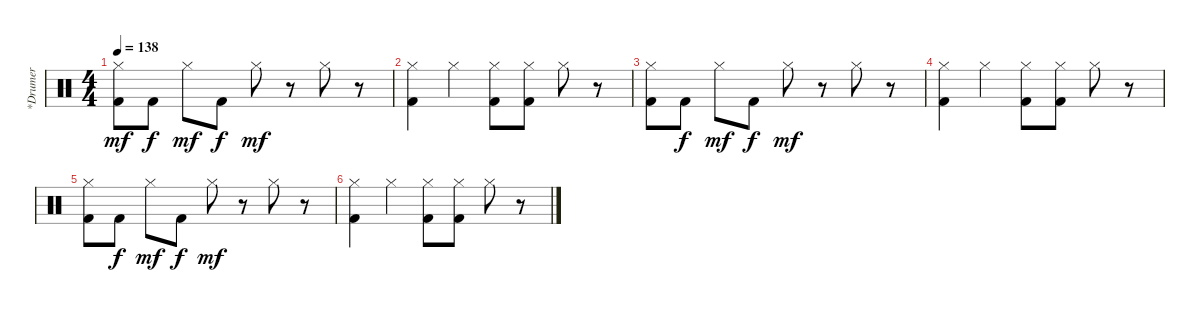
\track ("*Drumer" "*Drumer") {instrument percussion}
\staff {score}
\articulation defaults
\ts (4 4)
\tempo 138
\clef neutral
\ks c
("Hi-Hat (closed)" "Kick (hit) 2").8{dy mf} "Kick (hit) 2".8{dy f} "Hi-Hat (closed)".8{dy mf} "Kick (hit) 2".8{dy f} "Hi-Hat (closed)".8{dy mf} r.8 "Hi-Hat (closed)".8 r.8 |
("Hi-Hat (closed)" "Kick (hit) 2").4 "Hi-Hat (closed)".4 ("Hi-Hat (closed)" "Kick (hit) 2").8 ("Hi-Hat (closed)" "Kick (hit) 2").8 "Hi-Hat (closed)".8 r.8 |
("Hi-Hat (closed)" "Kick (hit) 2").8 "Kick (hit) 2".8{dy f} "Hi-Hat (closed)".8{dy mf} "Kick (hit) 2".8{dy f} "Hi-Hat (closed)".8{dy mf} r.8 "Hi-Hat (closed)".8 r.8 |
("Hi-Hat (closed)" "Kick (hit) 2").4 "Hi-Hat (closed)".4 ("Hi-Hat (closed)" "Kick (hit) 2").8 ("Hi-Hat (closed)" "Kick (hit) 2").8 "Hi-Hat (closed)".8 r.8 |
("Hi-Hat (closed)" "Kick (hit) 2").8 "Kick (hit) 2".8{dy f} "Hi-Hat (closed)".8{dy mf} "Kick (hit) 2".8{dy f} "Hi-Hat (closed)".8{dy mf} r.8 "Hi-Hat (closed)".8 r.8 |
("Hi-Hat (closed)" "Kick (hit) 2").4 "Hi-Hat (closed)".4 ("Hi-Hat (closed)" "Kick (hit) 2").8 ("Hi-Hat (closed)" "Kick (hit) 2").8 "Hi-Hat (closed)".8 r.8
